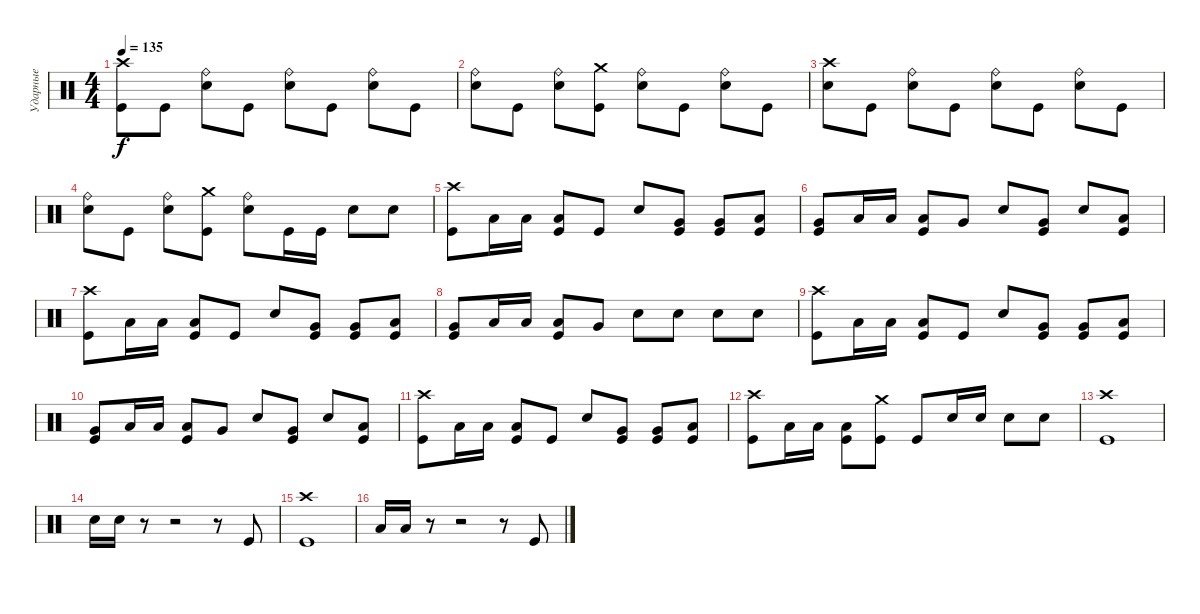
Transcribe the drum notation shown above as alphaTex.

\track ("Ударные" "Ударные") {instrument percussion}
\staff {score}
\articulation defaults
\ts (4 4)
\tempo 135
\clef neutral
\ks c
("Crash high (hit)" "Kick (hit)").8{dy f} "Kick (hit)".8 ("Ride (bell)" "Electric Snare (hit)").8 "Kick (hit)".8 ("Ride (bell)" "Electric Snare (hit)").8 "Kick (hit)".8 ("Ride (bell)" "Electric Snare (hit)").8 "Kick (hit)".8 |
("Ride (bell)" "Electric Snare (hit)").8 "Kick (hit)".8 ("Ride (bell)" "Electric Snare (hit)").8 ("Crash medium (hit)" "Kick (hit)").8 ("Ride (bell)" "Electric Snare (hit)").8 "Kick (hit)".8 ("Ride (bell)" "Electric Snare (hit)").8 "Kick (hit)".8 |
("Crash high (hit)" "Electric Snare (hit)").8 "Kick (hit)".8 ("Ride (bell)" "Electric Snare (hit)").8 "Kick (hit)".8 ("Ride (bell)" "Electric Snare (hit)").8 "Kick (hit)".8 ("Ride (bell)" "Electric Snare (hit)").8 "Kick (hit)".8 |
("Ride (bell)" "Electric Snare (hit)").8 "Kick (hit)".8 ("Ride (bell)" "Electric Snare (hit)").8 ("Crash medium (hit)" "Kick (hit)").8 ("Ride (bell)" "Electric Snare (hit)").8 "Kick (hit)".16 "Kick (hit)".16 "Electric Snare (hit)".8 "Electric Snare (hit)".8 |
("Crash high (hit)" "Kick (hit)").8 "Low Tom (hit)".16 "Low Tom (hit)".16 ("Low Tom (hit)" "Kick (hit)").8 "Kick (hit)".8 "Electric Snare (hit)".8 ("Very Low Tom (hit)" "Kick (hit)").8 ("Very Low Tom (hit)" "Kick (hit)").8 ("Low Tom (hit)" "Kick (hit)").8 |
("Very Low Tom (hit)" "Kick (hit)").8 "Low Tom (hit)".16 "Low Tom (hit)".16 ("Low Tom (hit)" "Kick (hit)").8 "Very Low Tom (hit)".8 "Electric Snare (hit)".8 ("Very Low Tom (hit)" "Kick (hit)").8 "Electric Snare (hit)".8 ("Low Tom (hit)" "Kick (hit)").8 |
("Crash high (hit)" "Kick (hit)").8 "Low Tom (hit)".16 "Low Tom (hit)".16 ("Low Tom (hit)" "Kick (hit)").8 "Kick (hit)".8 "Electric Snare (hit)".8 ("Very Low Tom (hit)" "Kick (hit)").8 ("Very Low Tom (hit)" "Kick (hit)").8 ("Low Tom (hit)" "Kick (hit)").8 |
("Very Low Tom (hit)" "Kick (hit)").8 "Low Tom (hit)".16 "Low Tom (hit)".16 ("Low Tom (hit)" "Kick (hit)").8 "Very Low Tom (hit)".8 "Electric Snare (hit)".8 "Electric Snare (hit)".8 "Electric Snare (hit)".8 "Electric Snare (hit)".8 |
("Crash high (hit)" "Kick (hit)").8 "Low Tom (hit)".16 "Low Tom (hit)".16 ("Low Tom (hit)" "Kick (hit)").8 "Kick (hit)".8 "Electric Snare (hit)".8 ("Very Low Tom (hit)" "Kick (hit)").8 ("Very Low Tom (hit)" "Kick (hit)").8 ("Low Tom (hit)" "Kick (hit)").8 |
("Very Low Tom (hit)" "Kick (hit)").8 "Low Tom (hit)".16 "Low Tom (hit)".16 ("Low Tom (hit)" "Kick (hit)").8 "Very Low Tom (hit)".8 "Electric Snare (hit)".8 ("Very Low Tom (hit)" "Kick (hit)").8 "Electric Snare (hit)".8 ("Low Tom (hit)" "Kick (hit)").8 |
("Crash high (hit)" "Kick (hit)").8 "Low Tom (hit)".16 "Low Tom (hit)".16 ("Low Tom (hit)" "Kick (hit)").8 "Kick (hit)".8 "Electric Snare (hit)".8 ("Very Low Tom (hit)" "Kick (hit)").8 ("Very Low Tom (hit)" "Kick (hit)").8 ("Low Tom (hit)" "Kick (hit)").8 |
("Crash high (hit)" "Kick (hit)").8 "Low Tom (hit)".16 "Low Tom (hit)".16 ("Low Tom (hit)" "Kick (hit)").8 ("Crash medium (hit)" "Kick (hit)").8 "Kick (hit)".8 "Electric Snare (hit)".16 "Electric Snare (hit)".16 "Electric Snare (hit)".8 "Electric Snare (hit)".8 |
("Crash high (hit)" "Kick (hit)").1 |
"Electric Snare (hit)".16 "Electric Snare (hit)".16 r.8 r.2 r.8 "Kick (hit)".8 |
("Crash high (hit)" "Kick (hit)").1 |
"Low Tom (hit)".16 "Low Tom (hit)".16 r.8 r.2 r.8 "Kick (hit)".8
